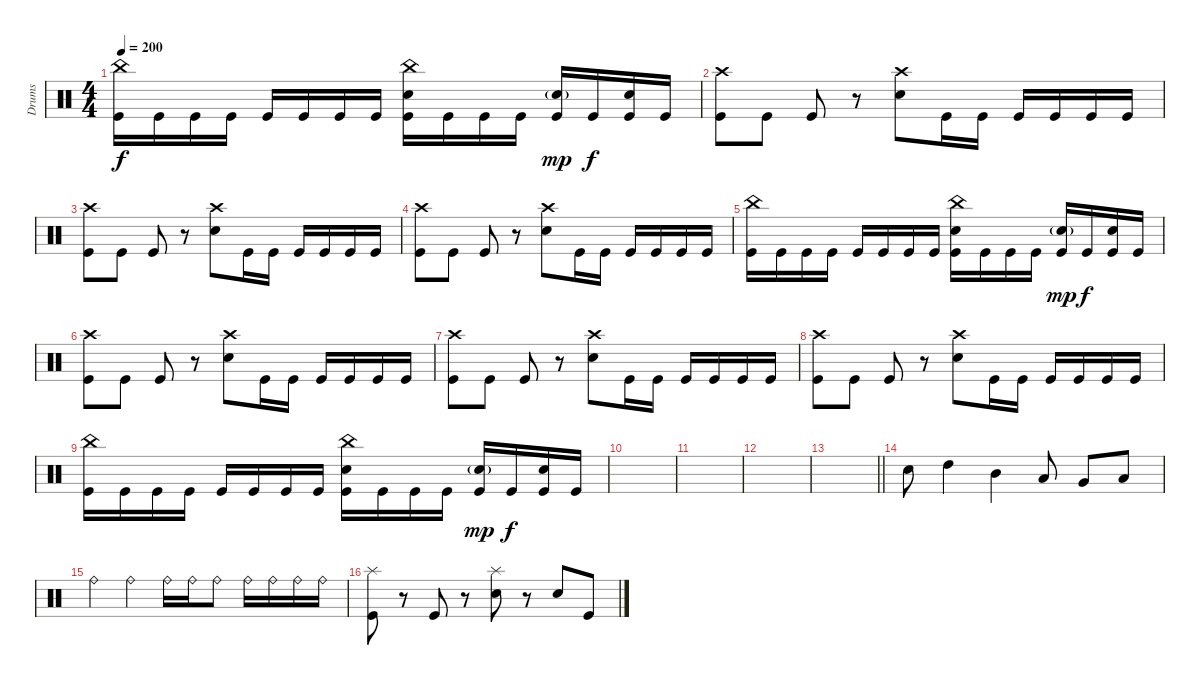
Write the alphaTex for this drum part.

\track ("Drums" "Drums") {instrument percussion}
\staff {score}
\articulation defaults
\ts (4 4)
\tempo 200
\clef neutral
\ks c
("China (hit)" "Kick (hit)").16{dy f} "Kick (hit)".16 "Kick (hit)".16 "Kick (hit)".16 "Kick (hit)".16 "Kick (hit)".16 "Kick (hit)".16 "Kick (hit)".16 ("China (hit)" "Snare (hit) 2" "Kick (hit)").16 "Kick (hit)".16 "Kick (hit)".16 "Kick (hit)".16 ("Snare (hit) 2"{g} "Kick (hit)").16{dy mp} "Kick (hit)".16{dy f} ("Snare (hit) 2" "Kick (hit)").16 "Kick (hit)".16 |
("Crash high (hit)" "Kick (hit)").8 "Kick (hit)".8 "Kick (hit)".8 r.8 ("Crash high (hit)" "Snare (hit) 2").8 "Kick (hit)".16 "Kick (hit)".16 "Kick (hit)".16 "Kick (hit)".16 "Kick (hit)".16 "Kick (hit)".16 |
("Crash high (hit)" "Kick (hit)").8 "Kick (hit)".8 "Kick (hit)".8 r.8 ("Crash high (hit)" "Snare (hit) 2").8 "Kick (hit)".16 "Kick (hit)".16 "Kick (hit)".16 "Kick (hit)".16 "Kick (hit)".16 "Kick (hit)".16 |
("Crash high (hit)" "Kick (hit)").8 "Kick (hit)".8 "Kick (hit)".8 r.8 ("Crash high (hit)" "Snare (hit) 2").8 "Kick (hit)".16 "Kick (hit)".16 "Kick (hit)".16 "Kick (hit)".16 "Kick (hit)".16 "Kick (hit)".16 |
("China (hit)" "Kick (hit)").16 "Kick (hit)".16 "Kick (hit)".16 "Kick (hit)".16 "Kick (hit)".16 "Kick (hit)".16 "Kick (hit)".16 "Kick (hit)".16 ("China (hit)" "Snare (hit) 2" "Kick (hit)").16 "Kick (hit)".16 "Kick (hit)".16 "Kick (hit)".16 ("Snare (hit) 2"{g} "Kick (hit)").16{dy mp} "Kick (hit)".16{dy f} ("Snare (hit) 2" "Kick (hit)").16 "Kick (hit)".16 |
("Crash high (hit)" "Kick (hit)").8 "Kick (hit)".8 "Kick (hit)".8 r.8 ("Crash high (hit)" "Snare (hit) 2").8 "Kick (hit)".16 "Kick (hit)".16 "Kick (hit)".16 "Kick (hit)".16 "Kick (hit)".16 "Kick (hit)".16 |
("Crash high (hit)" "Kick (hit)").8 "Kick (hit)".8 "Kick (hit)".8 r.8 ("Crash high (hit)" "Snare (hit) 2").8 "Kick (hit)".16 "Kick (hit)".16 "Kick (hit)".16 "Kick (hit)".16 "Kick (hit)".16 "Kick (hit)".16 |
("Crash high (hit)" "Kick (hit)").8 "Kick (hit)".8 "Kick (hit)".8 r.8 ("Crash high (hit)" "Snare (hit) 2").8 "Kick (hit)".16 "Kick (hit)".16 "Kick (hit)".16 "Kick (hit)".16 "Kick (hit)".16 "Kick (hit)".16 |
("China (hit)" "Kick (hit)").16 "Kick (hit)".16 "Kick (hit)".16 "Kick (hit)".16 "Kick (hit)".16 "Kick (hit)".16 "Kick (hit)".16 "Kick (hit)".16 ("China (hit)" "Snare (hit) 2" "Kick (hit)").16 "Kick (hit)".16 "Kick (hit)".16 "Kick (hit)".16 ("Snare (hit) 2"{g} "Kick (hit)").16{dy mp} "Kick (hit)".16{dy f} ("Snare (hit) 2" "Kick (hit)").16 "Kick (hit)".16 |
|
|
|
\barLineRight lightlight
|
"Snare (hit) 2".8 "High Tom (hit)".4 "Mid Tom (hit)".4 "Low Tom (hit)".8 "Very Low Tom (hit)".8 "Low Floor Tom (hit)".8 |
"Ride (bell)".4 "Ride (bell)".4 "Ride (bell)".16 "Ride (bell)".16 "Ride (bell)".8 "Ride (bell)".16 "Ride (bell)".16 "Ride (bell)".16 "Ride (bell)".16 |
("Splash (hit)" "Kick (hit)").8 r.8 "Kick (hit)".8 r.8 ("Splash (hit)" "Snare (hit) 2").8 r.8 "Snare (hit) 2".8 "Kick (hit)".8
